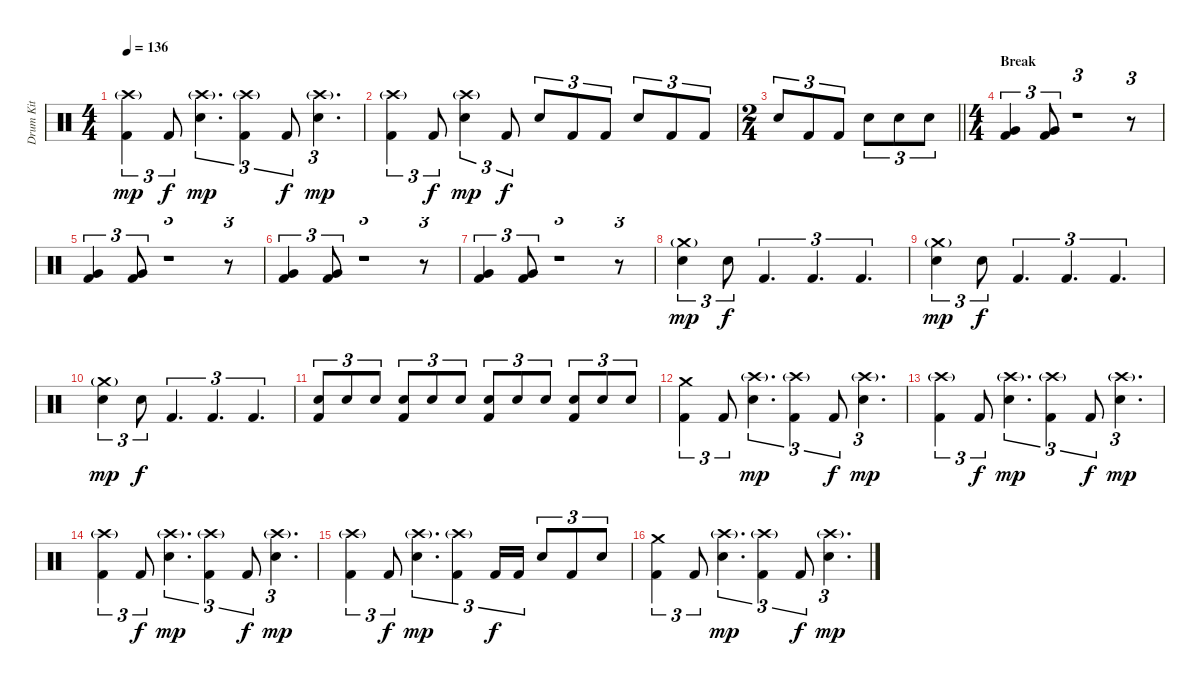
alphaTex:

\track ("Drum Kit" "Drum Kit") {instrument percussion}
\staff {score}
\articulation defaults
\ts (4 4)
\tempo 136
\clef neutral
\ks c
("Crash high (hit)"{g} "Kick (hit) 2").4{tu (3 2) dy mp} "Kick (hit) 2".8{tu (3 2) dy f} ("Crash high (hit)"{g} "Electric Snare (hit)").4{d tu (3 2) dy mp} ("Crash high (hit)"{g} "Kick (hit) 2").4{tu (3 2)} "Kick (hit) 2".8{tu (3 2) dy f} ("Crash high (hit)"{g} "Electric Snare (hit)").4{d tu (3 2) dy mp} |
("Crash high (hit)"{g} "Kick (hit) 2").4{tu (3 2)} "Kick (hit) 2".8{tu (3 2) dy f} ("Crash high (hit)"{g} "Electric Snare (hit)").4{tu (3 2) dy mp} "Kick (hit) 2".8{tu (3 2) dy f} "Electric Snare (hit)".8{tu (3 2)} "Kick (hit) 2".8{tu (3 2)} "Kick (hit) 2".8{tu (3 2)} "Electric Snare (hit)".8{tu (3 2)} "Kick (hit) 2".8{tu (3 2)} "Kick (hit) 2".8{tu (3 2)} |
\ts (2 4)
\barLineRight lightlight "Electric Snare (hit)".8{tu (3 2)} "Kick (hit) 2".8{tu (3 2)} "Kick (hit) 2".8{tu (3 2)} "Electric Snare (hit)".8{tu (3 2)} "Electric Snare (hit)".8{tu (3 2)} "Electric Snare (hit)".8{tu (3 2)}
|
\ts (4 4)
\section ("" "Break")
("Very Low Tom (hit)" "Kick (hit) 2").4{tu (3 2)} ("Very Low Tom (hit)" "Kick (hit) 2").8{tu (3 2)} r.1{tu (3 2)} r.8{tu (3 2)} |
("Very Low Tom (hit)" "Kick (hit) 2").4{tu (3 2)} ("Very Low Tom (hit)" "Kick (hit) 2").8{tu (3 2)} r.1{tu (3 2)} r.8{tu (3 2)} |
("Very Low Tom (hit)" "Kick (hit) 2").4{tu (3 2)} ("Very Low Tom (hit)" "Kick (hit) 2").8{tu (3 2)} r.1{tu (3 2)} r.8{tu (3 2)} |
("Very Low Tom (hit)" "Kick (hit) 2").4{tu (3 2)} ("Very Low Tom (hit)" "Kick (hit) 2").8{tu (3 2)} r.1{tu (3 2)} r.8{tu (3 2)} |
("Crash medium (hit)"{g} "Electric Snare (hit)").4{tu (3 2) dy mp} "Electric Snare (hit)".8{tu (3 2) dy f} "Kick (hit) 2".4{d tu (3 2)} "Kick (hit) 2".4{d tu (3 2)} "Kick (hit) 2".4{d tu (3 2)} |
("Crash medium (hit)"{g} "Electric Snare (hit)").4{tu (3 2) dy mp} "Electric Snare (hit)".8{tu (3 2) dy f} "Kick (hit) 2".4{d tu (3 2)} "Kick (hit) 2".4{d tu (3 2)} "Kick (hit) 2".4{d tu (3 2)} |
("Crash medium (hit)"{g} "Electric Snare (hit)").4{tu (3 2) dy mp} "Electric Snare (hit)".8{tu (3 2) dy f} "Kick (hit) 2".4{d tu (3 2)} "Kick (hit) 2".4{d tu (3 2)} "Kick (hit) 2".4{d tu (3 2)} |
("Electric Snare (hit)" "Kick (hit) 2").8{tu (3 2)} "Electric Snare (hit)".8{tu (3 2)} "Electric Snare (hit)".8{tu (3 2)} ("Electric Snare (hit)" "Kick (hit) 2").8{tu (3 2)} "Electric Snare (hit)".8{tu (3 2)} "Electric Snare (hit)".8{tu (3 2)} ("Electric Snare (hit)" "Kick (hit) 2").8{tu (3 2)} "Electric Snare (hit)".8{tu (3 2)} "Electric Snare (hit)".8{tu (3 2)} ("Electric Snare (hit)" "Kick (hit) 2").8{tu (3 2)} "Electric Snare (hit)".8{tu (3 2)} "Electric Snare (hit)".8{tu (3 2)} |
("Crash medium (hit)" "Kick (hit) 2").4{tu (3 2)} "Kick (hit) 2".8{tu (3 2)} ("Crash high (hit)"{g} "Electric Snare (hit)").4{d tu (3 2) dy mp} ("Crash high (hit)"{g} "Kick (hit) 2").4{tu (3 2)} "Kick (hit) 2".8{tu (3 2) dy f} ("Crash high (hit)"{g} "Electric Snare (hit)").4{d tu (3 2) dy mp} |
("Crash high (hit)"{g} "Kick (hit) 2").4{tu (3 2)} "Kick (hit) 2".8{tu (3 2) dy f} ("Crash high (hit)"{g} "Electric Snare (hit)").4{d tu (3 2) dy mp} ("Crash high (hit)"{g} "Kick (hit) 2").4{tu (3 2)} "Kick (hit) 2".8{tu (3 2) dy f} ("Crash high (hit)"{g} "Electric Snare (hit)").4{d tu (3 2) dy mp} |
("Crash high (hit)"{g} "Kick (hit) 2").4{tu (3 2)} "Kick (hit) 2".8{tu (3 2) dy f} ("Crash high (hit)"{g} "Electric Snare (hit)").4{d tu (3 2) dy mp} ("Crash high (hit)"{g} "Kick (hit) 2").4{tu (3 2)} "Kick (hit) 2".8{tu (3 2) dy f} ("Crash high (hit)"{g} "Electric Snare (hit)").4{d tu (3 2) dy mp} |
("Crash high (hit)"{g} "Kick (hit) 2").4{tu (3 2)} "Kick (hit) 2".8{tu (3 2) dy f} ("Crash high (hit)"{g} "Electric Snare (hit)").4{d tu (3 2) dy mp} ("Crash high (hit)"{g} "Kick (hit) 2").4{tu (3 2)} "Kick (hit) 2".16{tu (3 2) dy f} "Kick (hit) 2".16{tu (3 2)} "Electric Snare (hit)".8{tu (3 2)} "Kick (hit) 2".8{tu (3 2)} "Electric Snare (hit)".8{tu (3 2)} |
("Crash medium (hit)" "Kick (hit) 2").4{tu (3 2)} "Kick (hit) 2".8{tu (3 2)} ("Crash high (hit)"{g} "Electric Snare (hit)").4{d tu (3 2) dy mp} ("Crash high (hit)"{g} "Kick (hit) 2").4{tu (3 2)} "Kick (hit) 2".8{tu (3 2) dy f} ("Crash high (hit)"{g} "Electric Snare (hit)").4{d tu (3 2) dy mp}
